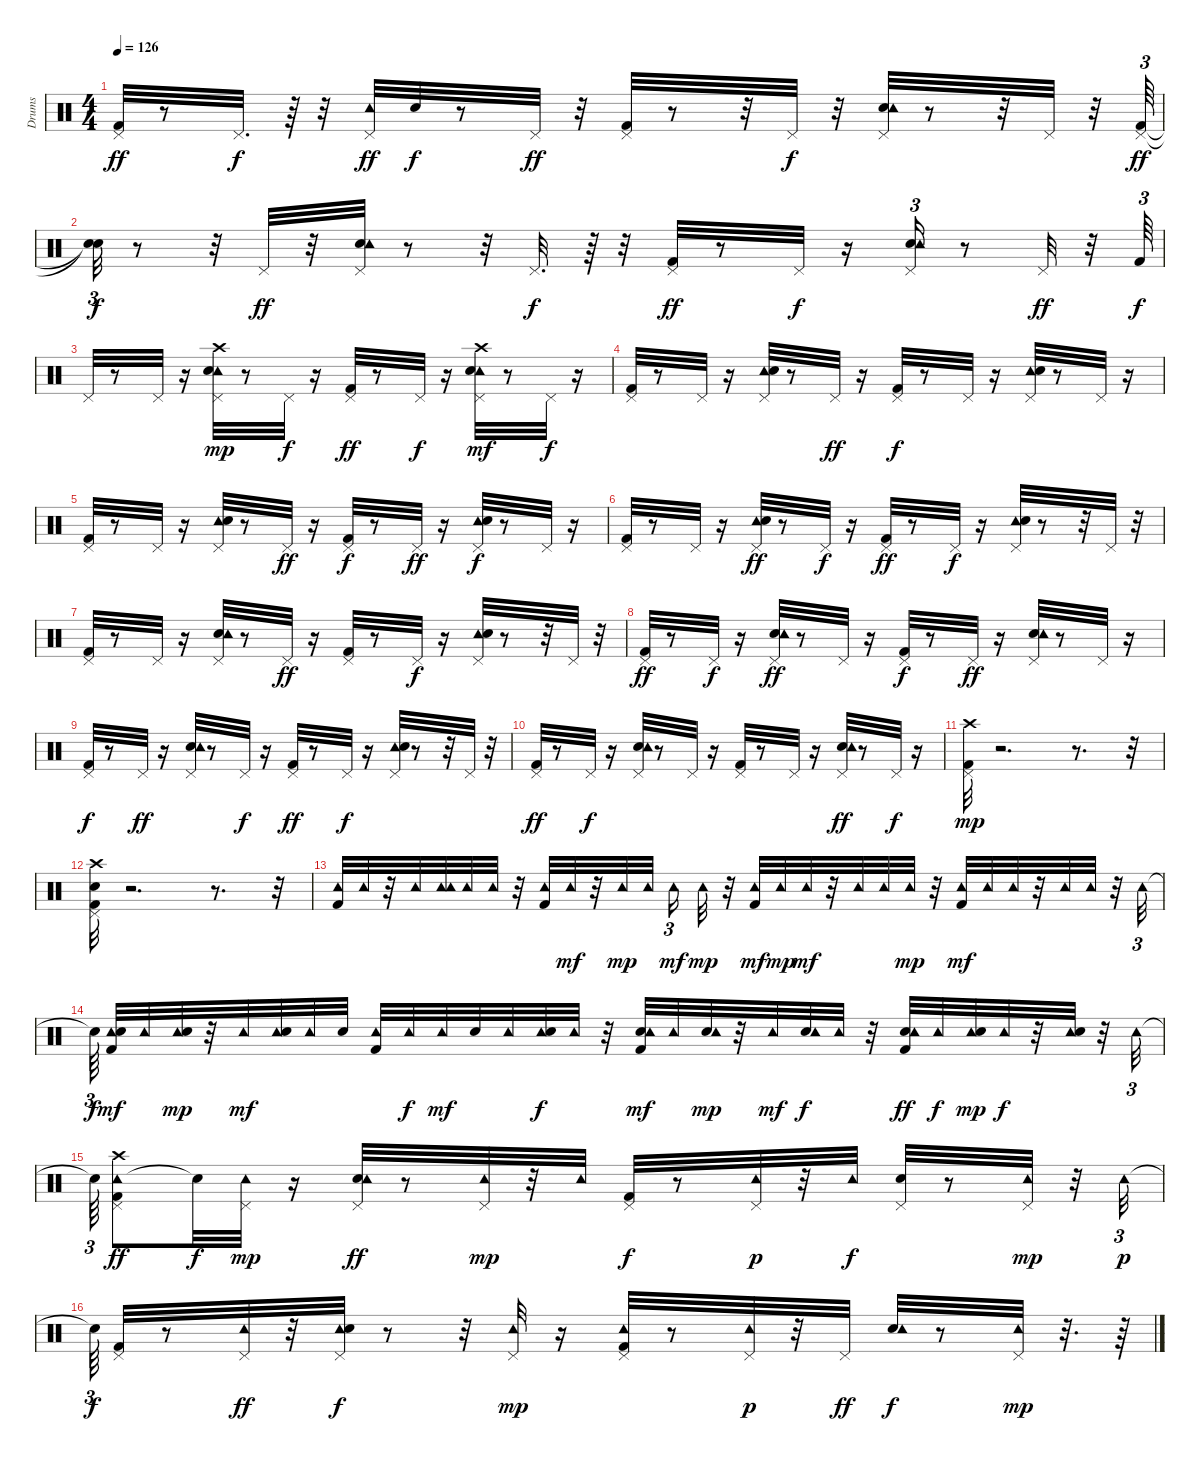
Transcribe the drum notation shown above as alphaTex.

\track ("Drums" "Drums") {instrument percussion}
\staff {score}
\articulation defaults
\ts (4 4)
\tempo 126
\clef neutral
\ks c
("Pedal Hi-Hat (hit)" "Kick (hit) 2").32{dy ff} r.8 "Pedal Hi-Hat (hit)".32{d dy f} r.64 r.32 ("Pedal Hi-Hat (hit)" "Tambourine (hit)").32{dy ff} "Electric Snare (hit)".32{dy f} r.8 "Pedal Hi-Hat (hit)".32{dy ff} r.32 ("Kick (hit) 2" "Pedal Hi-Hat (hit)").32 r.8 r.32 "Pedal Hi-Hat (hit)".32{dy f} r.32 ("Electric Snare (hit)" "Tambourine (hit)" "Pedal Hi-Hat (hit)").32 r.8 r.32 "Pedal Hi-Hat (hit)".32 r.32 ("Kick (hit) 2" "Pedal Hi-Hat (hit)").64{tu (3 2) dy ff} |
("Snare (hit)"{t} "Snare (hit)"{t}).32{tu (3 2) dy f} r.8 r.32 "Pedal Hi-Hat (hit)".32{dy ff} r.32 ("Electric Snare (hit)" "Tambourine (hit)" "Pedal Hi-Hat (hit)").32 r.8 r.32 "Pedal Hi-Hat (hit)".32{d dy f} r.64 r.32 ("Pedal Hi-Hat (hit)" "Kick (hit) 2").32{dy ff} r.8 "Pedal Hi-Hat (hit)".32{dy f} r.16 ("Pedal Hi-Hat (hit)" "Electric Snare (hit)" "Tambourine (hit)").16{tu (3 2)} r.8 "Pedal Hi-Hat (hit)".32{dy ff} r.32 "Kick (hit) 2".64{tu (3 2) dy f} |
"Pedal Hi-Hat (hit)".32 r.8 "Pedal Hi-Hat (hit)".32 r.16 ("Tambourine (hit)" "Electric Snare (hit)" "Crash high (hit)" "Pedal Hi-Hat (hit)").32{dy mp} r.8 "Pedal Hi-Hat (hit)".32{dy f} r.16 ("Kick (hit) 2" "Pedal Hi-Hat (hit)").32{dy ff} r.8 "Pedal Hi-Hat (hit)".32{dy f} r.16 ("Pedal Hi-Hat (hit)" "Tambourine (hit)" "Electric Snare (hit)" "Crash high (hit)").32{dy mf} r.8 "Pedal Hi-Hat (hit)".32{dy f} r.16 |
("Pedal Hi-Hat (hit)" "Kick (hit) 2").32 r.8 "Pedal Hi-Hat (hit)".32 r.16 ("Pedal Hi-Hat (hit)" "Tambourine (hit)" "Electric Snare (hit)").32 r.8 "Pedal Hi-Hat (hit)".32{dy ff} r.16 ("Kick (hit) 2" "Pedal Hi-Hat (hit)").32{dy f} r.8 "Pedal Hi-Hat (hit)".32 r.16 ("Pedal Hi-Hat (hit)" "Tambourine (hit)" "Electric Snare (hit)").32 r.8 "Pedal Hi-Hat (hit)".32 r.16 |
("Pedal Hi-Hat (hit)" "Kick (hit) 2").32 r.8 "Pedal Hi-Hat (hit)".32 r.16 ("Pedal Hi-Hat (hit)" "Tambourine (hit)" "Electric Snare (hit)").32 r.8 "Pedal Hi-Hat (hit)".32{dy ff} r.16 ("Pedal Hi-Hat (hit)" "Kick (hit) 2").32{dy f} r.8 "Pedal Hi-Hat (hit)".32{dy ff} r.16 ("Tambourine (hit)" "Pedal Hi-Hat (hit)" "Electric Snare (hit)").32{dy f} r.8 "Pedal Hi-Hat (hit)".32 r.16 |
("Kick (hit) 2" "Pedal Hi-Hat (hit)").32 r.8 "Pedal Hi-Hat (hit)".32 r.16 ("Tambourine (hit)" "Pedal Hi-Hat (hit)" "Electric Snare (hit)").32{dy ff} r.8 "Pedal Hi-Hat (hit)".32{dy f} r.16 ("Kick (hit) 2" "Pedal Hi-Hat (hit)").32{dy ff} r.8 "Pedal Hi-Hat (hit)".32{dy f} r.16 ("Tambourine (hit)" "Electric Snare (hit)" "Pedal Hi-Hat (hit)").32 r.8 r.32 "Pedal Hi-Hat (hit)".32 r.32 |
("Kick (hit) 2" "Pedal Hi-Hat (hit)").32 r.8 "Pedal Hi-Hat (hit)".32 r.16 ("Pedal Hi-Hat (hit)" "Electric Snare (hit)" "Tambourine (hit)").32 r.8 "Pedal Hi-Hat (hit)".32{dy ff} r.16 ("Pedal Hi-Hat (hit)" "Kick (hit) 2").32 r.8 "Pedal Hi-Hat (hit)".32{dy f} r.16 ("Tambourine (hit)" "Pedal Hi-Hat (hit)" "Electric Snare (hit)").32 r.8 r.32 "Pedal Hi-Hat (hit)".32 r.32 |
("Kick (hit) 2" "Pedal Hi-Hat (hit)").32{dy ff} r.8 "Pedal Hi-Hat (hit)".32{dy f} r.16 ("Pedal Hi-Hat (hit)" "Electric Snare (hit)" "Tambourine (hit)").32{dy ff} r.8 "Pedal Hi-Hat (hit)".32 r.16 ("Kick (hit) 2" "Pedal Hi-Hat (hit)").32{dy f} r.8 "Pedal Hi-Hat (hit)".32{dy ff} r.16 ("Electric Snare (hit)" "Tambourine (hit)" "Pedal Hi-Hat (hit)").32 r.8 "Pedal Hi-Hat (hit)".32 r.16 |
("Kick (hit) 2" "Pedal Hi-Hat (hit)").32{dy f} r.8 "Pedal Hi-Hat (hit)".32{dy ff} r.16 ("Pedal Hi-Hat (hit)" "Electric Snare (hit)" "Tambourine (hit)").32 r.8 "Pedal Hi-Hat (hit)".32{dy f} r.16 ("Kick (hit) 2" "Pedal Hi-Hat (hit)").32{dy ff} r.8 "Pedal Hi-Hat (hit)".32{dy f} r.16 ("Pedal Hi-Hat (hit)" "Tambourine (hit)" "Electric Snare (hit)").32 r.8 r.32 "Pedal Hi-Hat (hit)".32 r.32 |
("Kick (hit) 2" "Pedal Hi-Hat (hit)").32{dy ff} r.8 "Pedal Hi-Hat (hit)".32{dy f} r.16 ("Pedal Hi-Hat (hit)" "Electric Snare (hit)" "Tambourine (hit)").32 r.8 "Pedal Hi-Hat (hit)".32 r.16 ("Kick (hit) 2" "Pedal Hi-Hat (hit)").32 r.8 "Pedal Hi-Hat (hit)".32 r.16 ("Electric Snare (hit)" "Tambourine (hit)" "Pedal Hi-Hat (hit)").32{dy ff} r.8 "Pedal Hi-Hat (hit)".32{dy f} r.16 |
("Crash high (hit)" "Pedal Hi-Hat (hit)" "Kick (hit) 2").32{dy mp} r.2{d} r.8{d} r.32 |
("Pedal Hi-Hat (hit)" "Kick (hit) 2" "Electric Snare (hit)" "Crash high (hit)").32 r.2{d} r.8{d} r.32 |
("Tambourine (hit)" "Kick (hit) 2").32 "Tambourine (hit)".32 r.32 "Tambourine (hit)".32 ("Tambourine (hit)" "Tambourine (hit)").32 "Tambourine (hit)".32 "Tambourine (hit)".32 r.32 ("Kick (hit) 2" "Tambourine (hit)").32 "Tambourine (hit)".32{dy mf} r.32 "Tambourine (hit)".32{dy mp} "Tambourine (hit)".32 "Tambourine (hit)".16{tu (3 2) dy mf} "Tambourine (hit)".32{dy mp} r.32 ("Kick (hit) 2" "Tambourine (hit)").32{dy mf} "Tambourine (hit)".32{dy mp} "Tambourine (hit)".32{dy mf} r.32 "Tambourine (hit)".32 "Tambourine (hit)".32 "Tambourine (hit)".32{dy mp} r.32 ("Kick (hit) 2" "Tambourine (hit)").32{dy mf} "Tambourine (hit)".32 "Tambourine (hit)".32 r.32 "Tambourine (hit)".32 "Tambourine (hit)".32 r.32 "Tambourine (hit)".32{tu (3 2)} |
"Snare (hit)"{t}.64{tu (3 2) dy f} ("Tambourine (hit)" "Kick (hit) 2" "Snare (hit) 2").32{dy mf} "Tambourine (hit)".32 ("Tambourine (hit)" "Snare (hit) 2").32{dy mp} r.32 "Tambourine (hit)".32{dy mf} ("Tambourine (hit)" "Snare (hit) 2").32 "Tambourine (hit)".32 "Snare (hit) 2".32 ("Kick (hit) 2" "Tambourine (hit)").32 "Tambourine (hit)".32{dy f} "Tambourine (hit)".32{dy mf} "Snare (hit) 2".32 "Tambourine (hit)".32 ("Tambourine (hit)" "Snare (hit) 2").32{dy f} "Tambourine (hit)".32 r.32 ("Kick (hit) 2" "Snare (hit) 2" "Tambourine (hit)").32{dy mf} "Tambourine (hit)".32 ("Snare (hit) 2" "Tambourine (hit)").32{dy mp} r.32 "Tambourine (hit)".32{dy mf} ("Snare (hit) 2" "Tambourine (hit)").32{dy f} "Tambourine (hit)".32 r.32 ("Snare (hit) 2" "Tambourine (hit)" "Kick (hit) 2").32{dy ff} "Tambourine (hit)".32{dy f} ("Tambourine (hit)" "Snare (hit) 2").32{dy mp} "Tambourine (hit)".32{dy f} r.32 ("Tambourine (hit)" "Snare (hit) 2").32 r.32 "Tambourine (hit)".32{tu (3 2)} |
"Snare (hit)"{t}.64{tu (3 2)} ("Tambourine (hit)" "Pedal Hi-Hat (hit)" "Crash high (hit)" "Kick (hit) 2").8{dy ff} "Snare (hit)"{t}.32{dy f} ("Pedal Hi-Hat (hit)" "Tambourine (hit)").32{dy mp} r.16 ("Electric Snare (hit)" "Pedal Hi-Hat (hit)" "Tambourine (hit)").32{dy ff} r.8 ("Pedal Hi-Hat (hit)" "Tambourine (hit)").32{dy mp} r.32 "Tambourine (hit)".32 ("Kick (hit) 2" "Pedal Hi-Hat (hit)").32{dy f} r.8 ("Tambourine (hit)" "Pedal Hi-Hat (hit)").32{dy p} r.32 "Tambourine (hit)".32{dy f} ("Pedal Hi-Hat (hit)" "Electric Snare (hit)").32 r.8 ("Tambourine (hit)" "Pedal Hi-Hat (hit)").32{dy mp} r.32 "Tambourine (hit)".32{tu (3 2) dy p} |
"Snare (hit)"{t}.64{tu (3 2) dy f} ("Kick (hit) 2" "Pedal Hi-Hat (hit)").32 r.8 ("Tambourine (hit)" "Pedal Hi-Hat (hit)").32{dy ff} r.32 ("Tambourine (hit)" "Electric Snare (hit)" "Pedal Hi-Hat (hit)").32{dy f} r.8 r.32 ("Pedal Hi-Hat (hit)" "Tambourine (hit)").32{dy mp} r.16 ("Kick (hit) 2" "Pedal Hi-Hat (hit)" "Tambourine (hit)").32 r.8 ("Tambourine (hit)" "Pedal Hi-Hat (hit)").32{dy p} r.32 "Pedal Hi-Hat (hit)".32{dy ff} ("Electric Snare (hit)" "Tambourine (hit)").32{dy f} r.8 ("Tambourine (hit)" "Pedal Hi-Hat (hit)").32{dy mp} r.32{d} r.64
